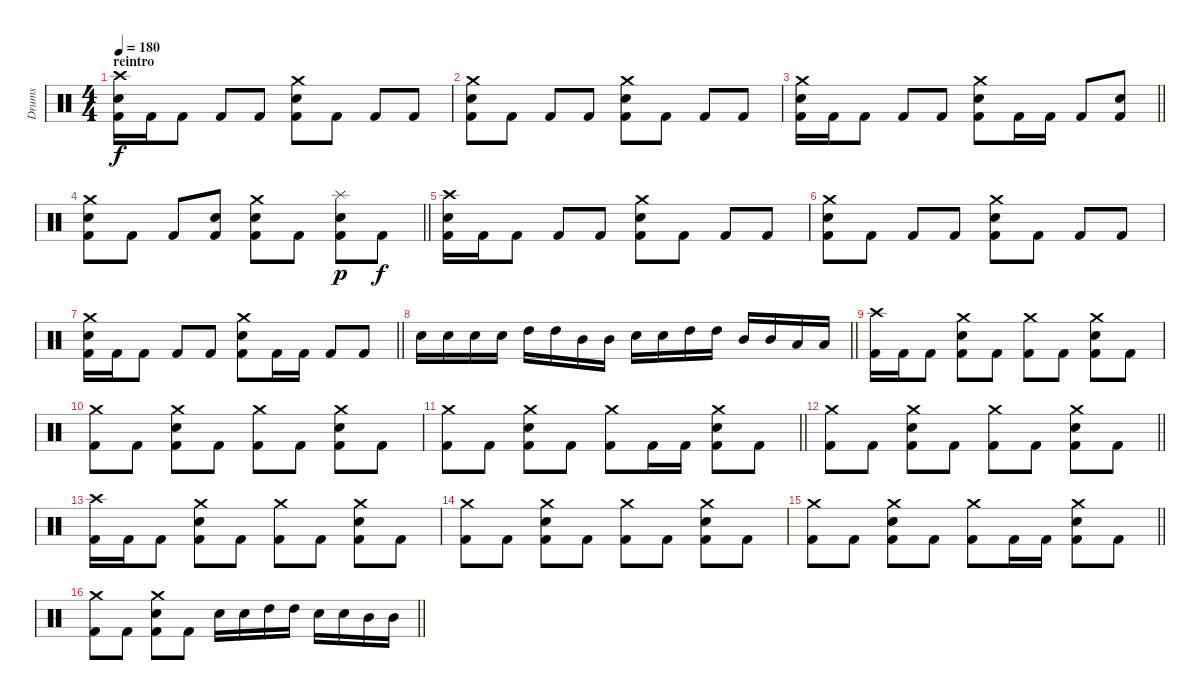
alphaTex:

\track ("Drums" "Drums") {instrument percussion}
\staff {score}
\articulation defaults
\ts (4 4)
\section ("" "reintro")
\tempo 180
\clef neutral
\ks c
("Crash high (hit)" "Electric Snare (hit)" "Kick (hit) 2").16{dy f} "Kick (hit) 2".16 "Kick (hit) 2".8 "Kick (hit) 2".8 "Kick (hit) 2".8 ("Crash medium (hit)" "Electric Snare (hit)" "Kick (hit) 2").8 "Kick (hit) 2".8 "Kick (hit) 2".8 "Kick (hit) 2".8 |
("Crash medium (hit)" "Electric Snare (hit)" "Kick (hit) 2").8 "Kick (hit) 2".8 "Kick (hit) 2".8 "Kick (hit) 2".8 ("Crash medium (hit)" "Electric Snare (hit)" "Kick (hit) 2").8 "Kick (hit) 2".8 "Kick (hit) 2".8 "Kick (hit) 2".8 |
\barLineRight lightlight
("Crash medium (hit)" "Electric Snare (hit)" "Kick (hit) 2").16 "Kick (hit) 2".16 "Kick (hit) 2".8 "Kick (hit) 2".8 "Kick (hit) 2".8 ("Crash medium (hit)" "Electric Snare (hit)" "Kick (hit) 2").8 "Kick (hit) 2".16 "Kick (hit) 2".16 "Kick (hit) 2".8 ("Electric Snare (hit)" "Kick (hit) 2").8 |
\barLineRight lightlight
("Crash medium (hit)" "Electric Snare (hit)" "Kick (hit) 2").8 "Kick (hit) 2".8 "Kick (hit) 2".8 ("Electric Snare (hit)" "Kick (hit) 2").8 ("Crash medium (hit)" "Electric Snare (hit)" "Kick (hit) 2").8 "Kick (hit) 2".8 ("Splash (hit)" "Electric Snare (hit)" "Kick (hit) 2").8{dy p} "Kick (hit) 2".8{dy f} |
("Crash high (hit)" "Electric Snare (hit)" "Kick (hit) 2").16 "Kick (hit) 2".16 "Kick (hit) 2".8 "Kick (hit) 2".8 "Kick (hit) 2".8 ("Crash medium (hit)" "Electric Snare (hit)" "Kick (hit) 2").8 "Kick (hit) 2".8 "Kick (hit) 2".8 "Kick (hit) 2".8 |
("Crash medium (hit)" "Electric Snare (hit)" "Kick (hit) 2").8 "Kick (hit) 2".8 "Kick (hit) 2".8 "Kick (hit) 2".8 ("Crash medium (hit)" "Electric Snare (hit)" "Kick (hit) 2").8 "Kick (hit) 2".8 "Kick (hit) 2".8 "Kick (hit) 2".8 |
\barLineRight lightlight
("Crash medium (hit)" "Electric Snare (hit)" "Kick (hit) 2").16 "Kick (hit) 2".16 "Kick (hit) 2".8 "Kick (hit) 2".8 "Kick (hit) 2".8 ("Crash medium (hit)" "Electric Snare (hit)" "Kick (hit) 2").8 "Kick (hit) 2".16 "Kick (hit) 2".16 "Kick (hit) 2".8 "Kick (hit) 2".8 |
\barLineRight lightlight "Electric Snare (hit)".16 "Electric Snare (hit)".16 "Electric Snare (hit)".16 "Electric Snare (hit)".16 "High Tom (hit)".16 "High Tom (hit)".16 "Mid Tom (hit)".16 "Mid Tom (hit)".16 "Electric Snare (hit)".16 "Electric Snare (hit)".16 "High Tom (hit)".16 "High Tom (hit)".16 "Mid Tom (hit)".16 "Mid Tom (hit)".16 "Low Tom (hit)".16 "Low Tom (hit)".16
|
("Crash high (hit)" "Kick (hit) 2").16 "Kick (hit) 2".16 "Kick (hit) 2".8 ("Crash medium (hit)" "Electric Snare (hit)" "Kick (hit) 2").8 "Kick (hit) 2".8 ("Crash medium (hit)" "Kick (hit) 2").8 "Kick (hit) 2".8 ("Crash medium (hit)" "Electric Snare (hit)" "Kick (hit) 2").8 "Kick (hit) 2".8 |
("Crash medium (hit)" "Kick (hit) 2").8 "Kick (hit) 2".8 ("Crash medium (hit)" "Electric Snare (hit)" "Kick (hit) 2").8 "Kick (hit) 2".8 ("Crash medium (hit)" "Kick (hit) 2").8 "Kick (hit) 2".8 ("Crash medium (hit)" "Electric Snare (hit)" "Kick (hit) 2").8 "Kick (hit) 2".8 |
\barLineRight lightlight
("Crash medium (hit)" "Kick (hit) 2").8 "Kick (hit) 2".8 ("Crash medium (hit)" "Electric Snare (hit)" "Kick (hit) 2").8 "Kick (hit) 2".8 ("Crash medium (hit)" "Kick (hit) 2").8 "Kick (hit) 2".16 "Kick (hit) 2".16 ("Crash medium (hit)" "Electric Snare (hit)" "Kick (hit) 2").8 "Kick (hit) 2".8 |
\barLineRight lightlight
("Crash medium (hit)" "Kick (hit) 2").8 "Kick (hit) 2".8 ("Crash medium (hit)" "Electric Snare (hit)" "Kick (hit) 2").8 "Kick (hit) 2".8 ("Crash medium (hit)" "Kick (hit) 2").8 "Kick (hit) 2".8 ("Crash medium (hit)" "Electric Snare (hit)" "Kick (hit) 2").8 "Kick (hit) 2".8 |
("Crash high (hit)" "Kick (hit) 2").16 "Kick (hit) 2".16 "Kick (hit) 2".8 ("Crash medium (hit)" "Electric Snare (hit)" "Kick (hit) 2").8 "Kick (hit) 2".8 ("Crash medium (hit)" "Kick (hit) 2").8 "Kick (hit) 2".8 ("Crash medium (hit)" "Electric Snare (hit)" "Kick (hit) 2").8 "Kick (hit) 2".8 |
("Crash medium (hit)" "Kick (hit) 2").8 "Kick (hit) 2".8 ("Crash medium (hit)" "Electric Snare (hit)" "Kick (hit) 2").8 "Kick (hit) 2".8 ("Crash medium (hit)" "Kick (hit) 2").8 "Kick (hit) 2".8 ("Crash medium (hit)" "Electric Snare (hit)" "Kick (hit) 2").8 "Kick (hit) 2".8 |
\barLineRight lightlight
("Crash medium (hit)" "Kick (hit) 2").8 "Kick (hit) 2".8 ("Crash medium (hit)" "Electric Snare (hit)" "Kick (hit) 2").8 "Kick (hit) 2".8 ("Crash medium (hit)" "Kick (hit) 2").8 "Kick (hit) 2".16 "Kick (hit) 2".16 ("Crash medium (hit)" "Electric Snare (hit)" "Kick (hit) 2").8 "Kick (hit) 2".8 |
\barLineRight lightlight
("Crash medium (hit)" "Kick (hit) 2").8 "Kick (hit) 2".8 ("Crash medium (hit)" "Electric Snare (hit)" "Kick (hit) 2").8 "Kick (hit) 2".8 "Electric Snare (hit)".16 "Electric Snare (hit)".16 "High Tom (hit)".16 "High Tom (hit)".16 "Electric Snare (hit)".16 "Electric Snare (hit)".16 "Mid Tom (hit)".16 "Mid Tom (hit)".16
